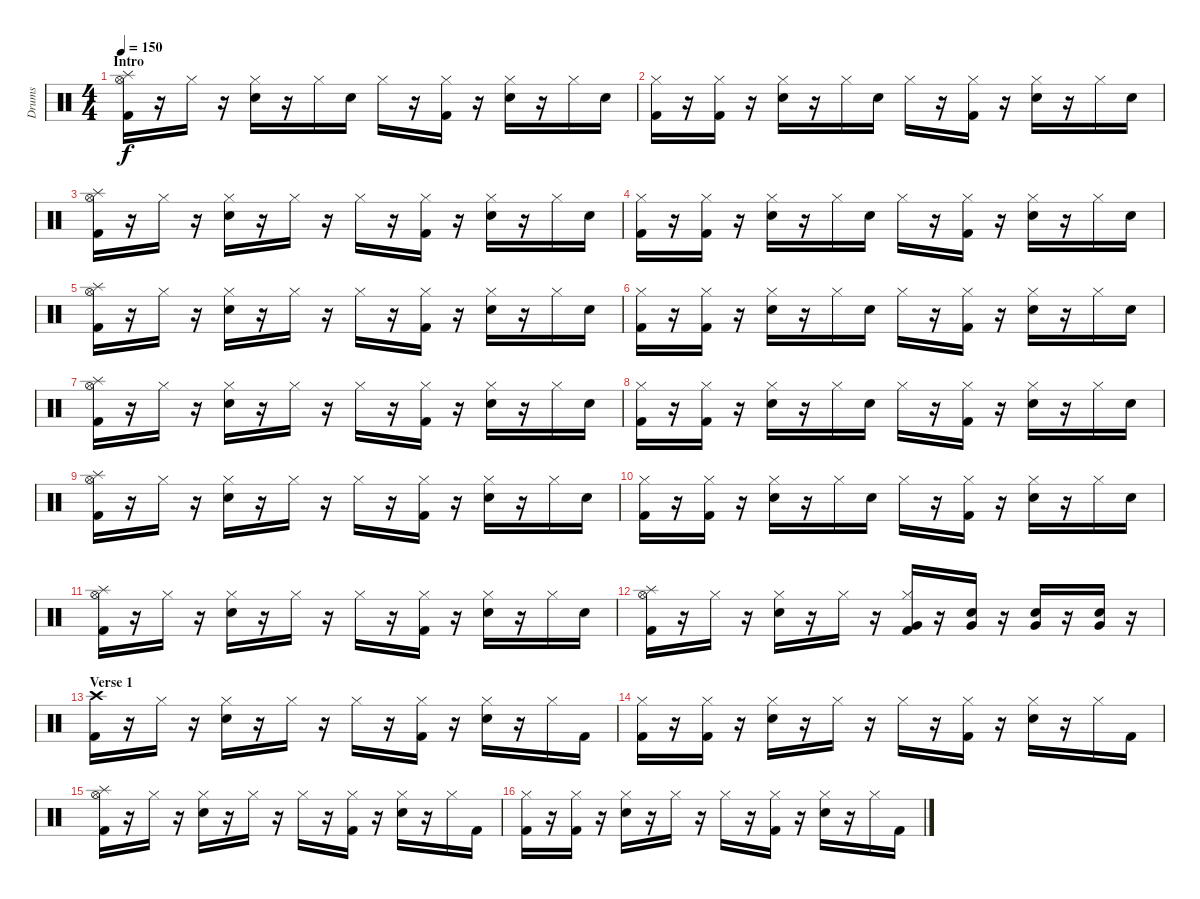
\track ("Drums" "Drums") {instrument percussion}
\staff {score}
\articulation defaults
\ts (4 4)
\section ("" "Intro")
\tempo 150
\clef neutral
\ks c
("Hi-Hat (open)" "Splash (hit)" "Kick (hit) 2").16{dy f} r.16 "Hi-Hat (closed)".16 r.16 ("Hi-Hat (closed)" "Electric Snare (hit)").16 r.16 "Hi-Hat (closed)".16 "Electric Snare (hit)".16 "Hi-Hat (closed)".16 r.16 ("Hi-Hat (closed)" "Kick (hit) 2").16 r.16 ("Hi-Hat (closed)" "Electric Snare (hit)").16 r.16 "Hi-Hat (closed)".16 "Electric Snare (hit)".16 |
("Hi-Hat (closed)" "Kick (hit) 2").16 r.16 ("Hi-Hat (closed)" "Kick (hit) 2").16 r.16 ("Hi-Hat (closed)" "Electric Snare (hit)").16 r.16 "Hi-Hat (closed)".16 "Electric Snare (hit)".16 "Hi-Hat (closed)".16 r.16 ("Hi-Hat (closed)" "Kick (hit) 2").16 r.16 ("Hi-Hat (closed)" "Electric Snare (hit)").16 r.16 "Hi-Hat (closed)".16 "Electric Snare (hit)".16 |
("Hi-Hat (open)" "Splash (hit)" "Kick (hit) 2").16 r.16 "Hi-Hat (closed)".16 r.16 ("Hi-Hat (closed)" "Electric Snare (hit)").16 r.16 "Hi-Hat (closed)".16 r.16 "Hi-Hat (closed)".16 r.16 ("Hi-Hat (closed)" "Kick (hit) 2").16 r.16 ("Hi-Hat (closed)" "Electric Snare (hit)").16 r.16 "Hi-Hat (closed)".16 "Electric Snare (hit)".16 |
("Hi-Hat (closed)" "Kick (hit) 2").16 r.16 ("Hi-Hat (closed)" "Kick (hit) 2").16 r.16 ("Hi-Hat (closed)" "Electric Snare (hit)").16 r.16 "Hi-Hat (closed)".16 "Electric Snare (hit)".16 "Hi-Hat (closed)".16 r.16 ("Hi-Hat (closed)" "Kick (hit) 2").16 r.16 ("Hi-Hat (closed)" "Electric Snare (hit)").16 r.16 "Hi-Hat (closed)".16 "Electric Snare (hit)".16 |
("Hi-Hat (open)" "Splash (hit)" "Kick (hit) 2").16 r.16 "Hi-Hat (closed)".16 r.16 ("Hi-Hat (closed)" "Electric Snare (hit)").16 r.16 "Hi-Hat (closed)".16 r.16 "Hi-Hat (closed)".16 r.16 ("Hi-Hat (closed)" "Kick (hit) 2").16 r.16 ("Hi-Hat (closed)" "Electric Snare (hit)").16 r.16 "Hi-Hat (closed)".16 "Electric Snare (hit)".16 |
("Hi-Hat (closed)" "Kick (hit) 2").16 r.16 ("Hi-Hat (closed)" "Kick (hit) 2").16 r.16 ("Hi-Hat (closed)" "Electric Snare (hit)").16 r.16 "Hi-Hat (closed)".16 "Electric Snare (hit)".16 "Hi-Hat (closed)".16 r.16 ("Hi-Hat (closed)" "Kick (hit) 2").16 r.16 ("Hi-Hat (closed)" "Electric Snare (hit)").16 r.16 "Hi-Hat (closed)".16 "Electric Snare (hit)".16 |
("Hi-Hat (open)" "Splash (hit)" "Kick (hit) 2").16 r.16 "Hi-Hat (closed)".16 r.16 ("Hi-Hat (closed)" "Electric Snare (hit)").16 r.16 "Hi-Hat (closed)".16 r.16 "Hi-Hat (closed)".16 r.16 ("Hi-Hat (closed)" "Kick (hit) 2").16 r.16 ("Hi-Hat (closed)" "Electric Snare (hit)").16 r.16 "Hi-Hat (closed)".16 "Electric Snare (hit)".16 |
("Hi-Hat (closed)" "Kick (hit) 2").16 r.16 ("Hi-Hat (closed)" "Kick (hit) 2").16 r.16 ("Hi-Hat (closed)" "Electric Snare (hit)").16 r.16 "Hi-Hat (closed)".16 "Electric Snare (hit)".16 "Hi-Hat (closed)".16 r.16 ("Hi-Hat (closed)" "Kick (hit) 2").16 r.16 ("Hi-Hat (closed)" "Electric Snare (hit)").16 r.16 "Hi-Hat (closed)".16 "Electric Snare (hit)".16 |
("Hi-Hat (open)" "Splash (hit)" "Kick (hit) 2").16 r.16 "Hi-Hat (closed)".16 r.16 ("Hi-Hat (closed)" "Electric Snare (hit)").16 r.16 "Hi-Hat (closed)".16 r.16 "Hi-Hat (closed)".16 r.16 ("Hi-Hat (closed)" "Kick (hit) 2").16 r.16 ("Hi-Hat (closed)" "Electric Snare (hit)").16 r.16 "Hi-Hat (closed)".16 "Electric Snare (hit)".16 |
("Hi-Hat (closed)" "Kick (hit) 2").16 r.16 ("Hi-Hat (closed)" "Kick (hit) 2").16 r.16 ("Hi-Hat (closed)" "Electric Snare (hit)").16 r.16 "Hi-Hat (closed)".16 "Electric Snare (hit)".16 "Hi-Hat (closed)".16 r.16 ("Hi-Hat (closed)" "Kick (hit) 2").16 r.16 ("Hi-Hat (closed)" "Electric Snare (hit)").16 r.16 "Hi-Hat (closed)".16 "Electric Snare (hit)".16 |
("Hi-Hat (open)" "Splash (hit)" "Kick (hit) 2").16 r.16 "Hi-Hat (closed)".16 r.16 ("Hi-Hat (closed)" "Electric Snare (hit)").16 r.16 "Hi-Hat (closed)".16 r.16 "Hi-Hat (closed)".16 r.16 ("Hi-Hat (closed)" "Kick (hit) 2").16 r.16 ("Hi-Hat (closed)" "Electric Snare (hit)").16 r.16 "Hi-Hat (closed)".16 "Electric Snare (hit)".16 |
("Hi-Hat (open)" "Splash (hit)" "Kick (hit) 2").16 r.16 "Hi-Hat (closed)".16 r.16 ("Hi-Hat (closed)" "Electric Snare (hit)").16 r.16 "Hi-Hat (closed)".16 r.16 ("Hi-Hat (closed)" "Very Low Tom (hit)" "Kick (hit) 2").16 r.16 ("Electric Snare (hit)" "Very Low Tom (hit)").16 r.16 ("Electric Snare (hit)" "Very Low Tom (hit)").16 r.16 ("Electric Snare (hit)" "Very Low Tom (hit)").16 r.16 |
\section ("" "Verse 1")
("Crash high (hit)" "Kick (hit) 2").16 r.16 "Hi-Hat (closed)".16 r.16 ("Hi-Hat (closed)" "Electric Snare (hit)").16 r.16 "Hi-Hat (closed)".16 r.16 "Hi-Hat (closed)".16 r.16 ("Hi-Hat (closed)" "Kick (hit) 2").16 r.16 ("Hi-Hat (closed)" "Electric Snare (hit)").16 r.16 "Hi-Hat (closed)".16 "Kick (hit) 2".16 |
("Hi-Hat (closed)" "Kick (hit) 2").16 r.16 ("Hi-Hat (closed)" "Kick (hit) 2").16 r.16 ("Hi-Hat (closed)" "Electric Snare (hit)").16 r.16 "Hi-Hat (closed)".16 r.16 "Hi-Hat (closed)".16 r.16 ("Hi-Hat (closed)" "Kick (hit) 2").16 r.16 ("Hi-Hat (closed)" "Electric Snare (hit)").16 r.16 "Hi-Hat (closed)".16 "Kick (hit) 2".16 |
("Hi-Hat (open)" "Splash (hit)" "Kick (hit) 2").16 r.16 "Hi-Hat (closed)".16 r.16 ("Hi-Hat (closed)" "Electric Snare (hit)").16 r.16 "Hi-Hat (closed)".16 r.16 "Hi-Hat (closed)".16 r.16 ("Hi-Hat (closed)" "Kick (hit) 2").16 r.16 ("Hi-Hat (closed)" "Electric Snare (hit)").16 r.16 "Hi-Hat (closed)".16 "Kick (hit) 2".16 |
("Hi-Hat (closed)" "Kick (hit) 2").16 r.16 ("Hi-Hat (closed)" "Kick (hit) 2").16 r.16 ("Hi-Hat (closed)" "Electric Snare (hit)").16 r.16 "Hi-Hat (closed)".16 r.16 "Hi-Hat (closed)".16 r.16 ("Hi-Hat (closed)" "Kick (hit) 2").16 r.16 ("Hi-Hat (closed)" "Electric Snare (hit)").16 r.16 "Hi-Hat (closed)".16 "Kick (hit) 2".16
